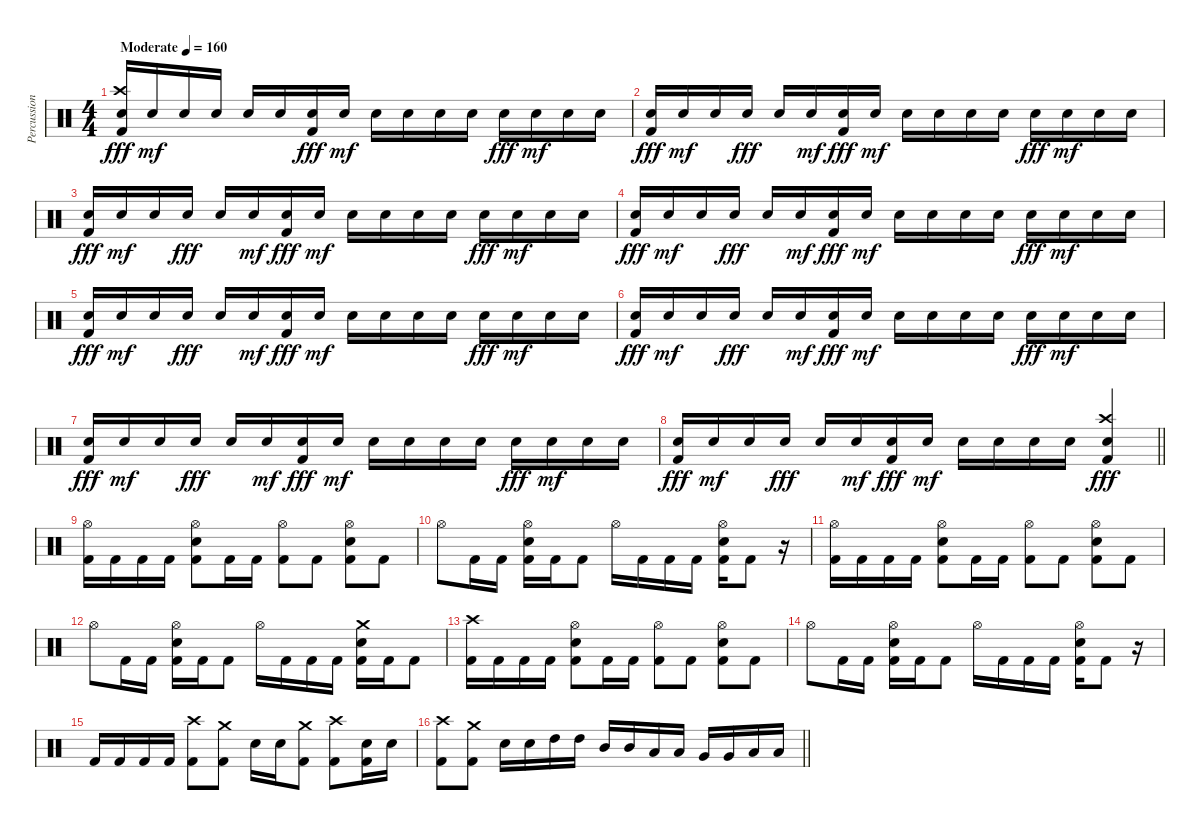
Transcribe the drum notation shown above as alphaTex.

\track ("Percussion" "Percussion") {instrument percussion}
\staff {score}
\articulation defaults
\ts (4 4)
\section ("" "")
\tempo (160 "Moderate")
\clef neutral
\ks c
("Snare (hit) 2" "Crash high (hit)" "Kick (hit) 2").16{dy fff} "Snare (hit) 2".16{dy mf} "Snare (hit) 2".16 "Snare (hit) 2".16 "Snare (hit) 2".16 "Snare (hit) 2".16 ("Snare (hit) 2" "Kick (hit) 2").16{dy fff} "Snare (hit) 2".16{dy mf} "Snare (hit) 2".16 "Snare (hit) 2".16 "Snare (hit) 2".16 "Snare (hit) 2".16 "Snare (hit) 2".16{dy fff} "Snare (hit) 2".16{dy mf} "Snare (hit) 2".16 "Snare (hit) 2".16 |
("Snare (hit) 2" "Kick (hit) 2").16{dy fff} "Snare (hit) 2".16{dy mf} "Snare (hit) 2".16 "Snare (hit) 2".16{dy fff} "Snare (hit) 2".16 "Snare (hit) 2".16{dy mf} ("Snare (hit) 2" "Kick (hit) 2").16{dy fff} "Snare (hit) 2".16{dy mf} "Snare (hit) 2".16 "Snare (hit) 2".16 "Snare (hit) 2".16 "Snare (hit) 2".16 "Snare (hit) 2".16{dy fff} "Snare (hit) 2".16{dy mf} "Snare (hit) 2".16 "Snare (hit) 2".16 |
("Snare (hit) 2" "Kick (hit) 2").16{dy fff} "Snare (hit) 2".16{dy mf} "Snare (hit) 2".16 "Snare (hit) 2".16{dy fff} "Snare (hit) 2".16 "Snare (hit) 2".16{dy mf} ("Snare (hit) 2" "Kick (hit) 2").16{dy fff} "Snare (hit) 2".16{dy mf} "Snare (hit) 2".16 "Snare (hit) 2".16 "Snare (hit) 2".16 "Snare (hit) 2".16 "Snare (hit) 2".16{dy fff} "Snare (hit) 2".16{dy mf} "Snare (hit) 2".16 "Snare (hit) 2".16 |
("Snare (hit) 2" "Kick (hit) 2").16{dy fff} "Snare (hit) 2".16{dy mf} "Snare (hit) 2".16 "Snare (hit) 2".16{dy fff} "Snare (hit) 2".16 "Snare (hit) 2".16{dy mf} ("Snare (hit) 2" "Kick (hit) 2").16{dy fff} "Snare (hit) 2".16{dy mf} "Snare (hit) 2".16 "Snare (hit) 2".16 "Snare (hit) 2".16 "Snare (hit) 2".16 "Snare (hit) 2".16{dy fff} "Snare (hit) 2".16{dy mf} "Snare (hit) 2".16 "Snare (hit) 2".16 |
("Snare (hit) 2" "Kick (hit) 2").16{dy fff} "Snare (hit) 2".16{dy mf} "Snare (hit) 2".16 "Snare (hit) 2".16{dy fff} "Snare (hit) 2".16 "Snare (hit) 2".16{dy mf} ("Snare (hit) 2" "Kick (hit) 2").16{dy fff} "Snare (hit) 2".16{dy mf} "Snare (hit) 2".16 "Snare (hit) 2".16 "Snare (hit) 2".16 "Snare (hit) 2".16 "Snare (hit) 2".16{dy fff} "Snare (hit) 2".16{dy mf} "Snare (hit) 2".16 "Snare (hit) 2".16 |
("Snare (hit) 2" "Kick (hit) 2").16{dy fff} "Snare (hit) 2".16{dy mf} "Snare (hit) 2".16 "Snare (hit) 2".16{dy fff} "Snare (hit) 2".16 "Snare (hit) 2".16{dy mf} ("Snare (hit) 2" "Kick (hit) 2").16{dy fff} "Snare (hit) 2".16{dy mf} "Snare (hit) 2".16 "Snare (hit) 2".16 "Snare (hit) 2".16 "Snare (hit) 2".16 "Snare (hit) 2".16{dy fff} "Snare (hit) 2".16{dy mf} "Snare (hit) 2".16 "Snare (hit) 2".16 |
("Snare (hit) 2" "Kick (hit) 2").16{dy fff} "Snare (hit) 2".16{dy mf} "Snare (hit) 2".16 "Snare (hit) 2".16{dy fff} "Snare (hit) 2".16 "Snare (hit) 2".16{dy mf} ("Snare (hit) 2" "Kick (hit) 2").16{dy fff} "Snare (hit) 2".16{dy mf} "Snare (hit) 2".16 "Snare (hit) 2".16 "Snare (hit) 2".16 "Snare (hit) 2".16 "Snare (hit) 2".16{dy fff} "Snare (hit) 2".16{dy mf} "Snare (hit) 2".16 "Snare (hit) 2".16 |
\barLineRight lightlight
("Snare (hit) 2" "Kick (hit) 2").16{dy fff} "Snare (hit) 2".16{dy mf} "Snare (hit) 2".16 "Snare (hit) 2".16{dy fff} "Snare (hit) 2".16 "Snare (hit) 2".16{dy mf} ("Snare (hit) 2" "Kick (hit) 2").16{dy fff} "Snare (hit) 2".16{dy mf} "Snare (hit) 2".16 "Snare (hit) 2".16 "Snare (hit) 2".16 "Snare (hit) 2".16 ("Crash high (hit)" "Kick (hit) 2" "Snare (hit) 2").4{dy fff} |
\section ("" "")
("Hi-Hat (open)" "Kick (hit) 2").16 "Kick (hit) 2".16 "Kick (hit) 2".16 "Kick (hit) 2".16 ("Hi-Hat (open)" "Snare (hit) 2" "Kick (hit) 2").8 "Kick (hit) 2".16 "Kick (hit) 2".16 ("Hi-Hat (open)" "Kick (hit) 2").8 "Kick (hit) 2".8 ("Hi-Hat (open)" "Snare (hit) 2" "Kick (hit) 2").8 "Kick (hit) 2".8 |
"Hi-Hat (open)".8 "Kick (hit) 2".16 "Kick (hit) 2".16 ("Hi-Hat (open)" "Snare (hit) 2" "Kick (hit) 2").16 "Kick (hit) 2".16 "Kick (hit) 2".8 "Hi-Hat (open)".16 "Kick (hit) 2".16 "Kick (hit) 2".16 "Kick (hit) 2".16 ("Hi-Hat (open)" "Snare (hit) 2" "Kick (hit) 2").16 "Kick (hit) 2".8 r.16 |
("Hi-Hat (open)" "Kick (hit) 2").16 "Kick (hit) 2".16 "Kick (hit) 2".16 "Kick (hit) 2".16 ("Hi-Hat (open)" "Snare (hit) 2" "Kick (hit) 2").8 "Kick (hit) 2".16 "Kick (hit) 2".16 ("Hi-Hat (open)" "Kick (hit) 2").8 "Kick (hit) 2".8 ("Hi-Hat (open)" "Snare (hit) 2" "Kick (hit) 2").8 "Kick (hit) 2".8 |
"Hi-Hat (open)".8 "Kick (hit) 2".16 "Kick (hit) 2".16 ("Hi-Hat (open)" "Snare (hit) 2" "Kick (hit) 2").16 "Kick (hit) 2".16 "Kick (hit) 2".8 "Hi-Hat (open)".16 "Kick (hit) 2".16 "Kick (hit) 2".16 "Kick (hit) 2".16 ("Crash medium (hit)" "Snare (hit) 2" "Kick (hit) 2").16 "Kick (hit) 2".16 "Kick (hit) 2".8 |
("Crash high (hit)" "Kick (hit) 2").16 "Kick (hit) 2".16 "Kick (hit) 2".16 "Kick (hit) 2".16 ("Hi-Hat (open)" "Snare (hit) 2" "Kick (hit) 2").8 "Kick (hit) 2".16 "Kick (hit) 2".16 ("Hi-Hat (open)" "Kick (hit) 2").8 "Kick (hit) 2".8 ("Hi-Hat (open)" "Snare (hit) 2" "Kick (hit) 2").8 "Kick (hit) 2".8 |
"Hi-Hat (open)".8 "Kick (hit) 2".16 "Kick (hit) 2".16 ("Hi-Hat (open)" "Snare (hit) 2" "Kick (hit) 2").16 "Kick (hit) 2".16 "Kick (hit) 2".8 "Hi-Hat (open)".16 "Kick (hit) 2".16 "Kick (hit) 2".16 "Kick (hit) 2".16 ("Hi-Hat (open)" "Snare (hit) 2" "Kick (hit) 2").16 "Kick (hit) 2".8 r.16 |
"Kick (hit) 2".16 "Kick (hit) 2".16 "Kick (hit) 2".16 "Kick (hit) 2".16 ("Crash high (hit)" "Kick (hit) 2").8 ("Crash medium (hit)" "Kick (hit) 2").8 "Snare (hit) 2".16 "Snare (hit) 2".16 ("Crash medium (hit)" "Kick (hit) 2").8 ("Crash high (hit)" "Kick (hit) 2").8 ("Kick (hit) 2" "Snare (hit) 2").16 "Snare (hit) 2".16 |
\barLineRight lightlight
("Crash high (hit)" "Kick (hit) 2").8 ("Crash medium (hit)" "Kick (hit) 2").8 "Snare (hit) 2".16 "Snare (hit) 2".16 "High Tom (hit)".16 "High Tom (hit)".16 "Mid Tom (hit)".16 "Mid Tom (hit)".16 "Low Tom (hit)".16 "Low Tom (hit)".16 "Very Low Tom (hit)".16 "Very Low Tom (hit)".16 "Low Floor Tom (hit)".16 "Low Floor Tom (hit)".16
